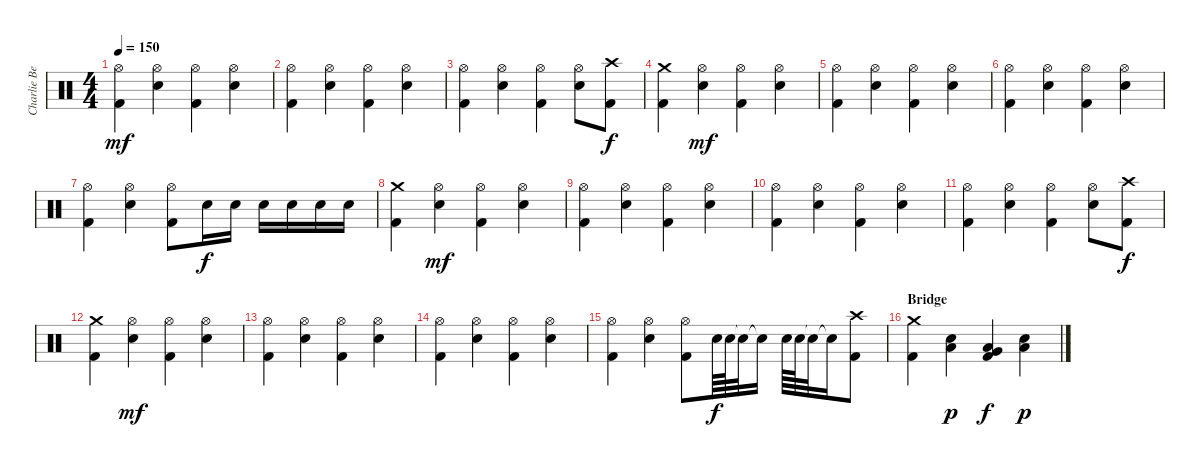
\track ("Charlie Benante" "Charlie Be") {instrument percussion}
\staff {score}
\articulation defaults
\ts (4 4)
\tempo 150
\clef neutral
\ks c
("Kick (hit) 2" "Hi-Hat (open)").4{dy mf} ("Hi-Hat (open)" "Snare (hit) 2").4 ("Kick (hit) 2" "Hi-Hat (open)").4 ("Hi-Hat (open)" "Snare (hit) 2").4 |
("Kick (hit) 2" "Hi-Hat (open)").4 ("Hi-Hat (open)" "Snare (hit) 2").4 ("Kick (hit) 2" "Hi-Hat (open)").4 ("Hi-Hat (open)" "Snare (hit) 2").4 |
("Kick (hit) 2" "Hi-Hat (open)").4 ("Hi-Hat (open)" "Snare (hit) 2").4 ("Kick (hit) 2" "Hi-Hat (open)").4 ("Hi-Hat (open)" "Snare (hit) 2").8 ("Kick (hit) 2" "Crash high (hit)").8{dy f} |
("Kick (hit) 2" "Crash medium (hit)").4 ("Hi-Hat (open)" "Snare (hit) 2").4{dy mf} ("Kick (hit) 2" "Hi-Hat (open)").4 ("Hi-Hat (open)" "Snare (hit) 2").4 |
("Kick (hit) 2" "Hi-Hat (open)").4 ("Hi-Hat (open)" "Snare (hit) 2").4 ("Kick (hit) 2" "Hi-Hat (open)").4 ("Hi-Hat (open)" "Snare (hit) 2").4 |
("Kick (hit) 2" "Hi-Hat (open)").4 ("Hi-Hat (open)" "Snare (hit) 2").4 ("Kick (hit) 2" "Hi-Hat (open)").4 ("Hi-Hat (open)" "Snare (hit) 2").4 |
("Kick (hit) 2" "Hi-Hat (open)").4 ("Hi-Hat (open)" "Snare (hit) 2").4 ("Kick (hit) 2" "Hi-Hat (open)").8 "Snare (hit) 2".16{dy f} "Snare (hit) 2".16 "Snare (hit) 2".16 "Snare (hit) 2".16 "Snare (hit) 2".16 "Snare (hit) 2".16 |
("Kick (hit) 2" "Crash medium (hit)").4 ("Hi-Hat (open)" "Snare (hit) 2").4{dy mf} ("Kick (hit) 2" "Hi-Hat (open)").4 ("Hi-Hat (open)" "Snare (hit) 2").4 |
("Kick (hit) 2" "Hi-Hat (open)").4 ("Hi-Hat (open)" "Snare (hit) 2").4 ("Kick (hit) 2" "Hi-Hat (open)").4 ("Hi-Hat (open)" "Snare (hit) 2").4 |
("Kick (hit) 2" "Hi-Hat (open)").4 ("Hi-Hat (open)" "Snare (hit) 2").4 ("Kick (hit) 2" "Hi-Hat (open)").4 ("Hi-Hat (open)" "Snare (hit) 2").4 |
("Kick (hit) 2" "Hi-Hat (open)").4 ("Hi-Hat (open)" "Snare (hit) 2").4 ("Kick (hit) 2" "Hi-Hat (open)").4 ("Hi-Hat (open)" "Snare (hit) 2").8 ("Kick (hit) 2" "Crash high (hit)").8{dy f} |
("Kick (hit) 2" "Crash medium (hit)").4 ("Hi-Hat (open)" "Snare (hit) 2").4{dy mf} ("Kick (hit) 2" "Hi-Hat (open)").4 ("Hi-Hat (open)" "Snare (hit) 2").4 |
("Kick (hit) 2" "Hi-Hat (open)").4 ("Hi-Hat (open)" "Snare (hit) 2").4 ("Kick (hit) 2" "Hi-Hat (open)").4 ("Hi-Hat (open)" "Snare (hit) 2").4 |
("Kick (hit) 2" "Hi-Hat (open)").4 ("Hi-Hat (open)" "Snare (hit) 2").4 ("Kick (hit) 2" "Hi-Hat (open)").4 ("Hi-Hat (open)" "Snare (hit) 2").4 |
("Kick (hit) 2" "Hi-Hat (open)").4 ("Hi-Hat (open)" "Snare (hit) 2").4 ("Kick (hit) 2" "Hi-Hat (open)").8 "Snare (hit) 2".64{dy f} "Snare (hit) 2".64 "Snare (hit)"{t}.32 "Snare (hit)"{t}.16 "Snare (hit) 2".64 "Snare (hit) 2".64 "Snare (hit)"{t}.32 "Snare (hit)"{t}.16 ("Kick (hit) 2" "Crash high (hit)").8 |
\section ("" "Bridge")
("Kick (hit) 2" "Crash medium (hit)").4 ("Snare (hit) 2" "Low Tom (hit)").4{dy p} ("Kick (hit) 2" "Low Tom (hit)" "Very Low Tom (hit)").4{dy f} ("Snare (hit) 2" "Low Tom (hit)").4{dy p}
